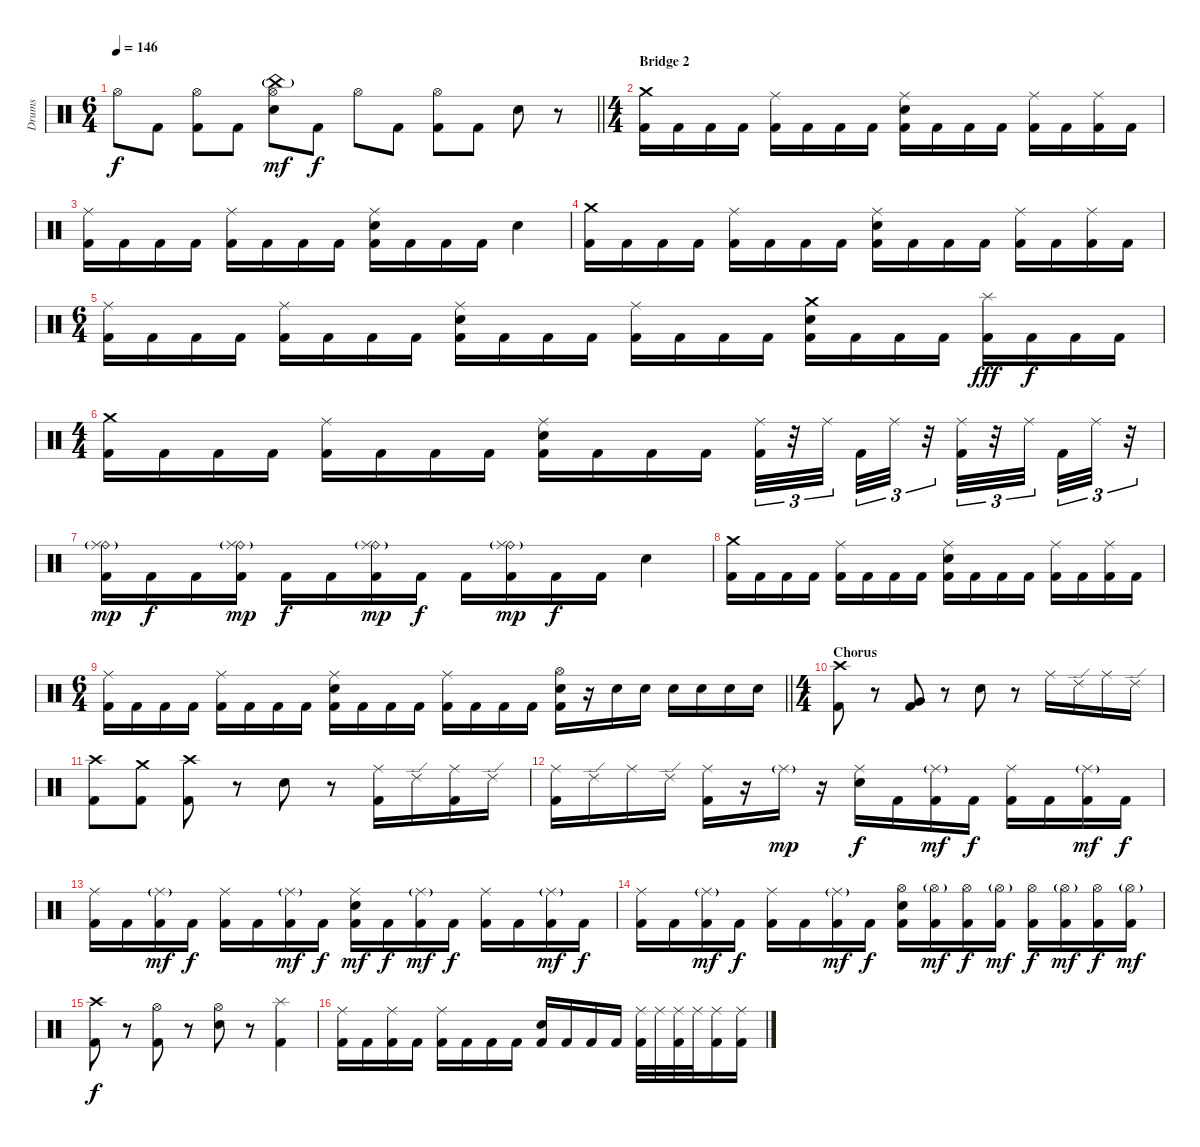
\track ("Drums" "Drums") {instrument percussion}
\staff {score}
\articulation defaults
\ts (6 4)
\tempo 146
\clef neutral
\barLineRight lightlight
\ks c "Hi-Hat (open)".8{dy f} "Kick (hit) 2".8
("Hi-Hat (open)" "Kick (hit) 2").8 "Kick (hit) 2".8 ("China (hit)"{g} "Hi-Hat (open)" "Electric Snare (hit)").8{dy mf} "Kick (hit) 2".8{dy f} "Hi-Hat (open)".8 "Kick (hit) 2".8 ("Hi-Hat (open)" "Kick (hit) 2").8 "Kick (hit) 2".8 "Electric Snare (hit)".8 r.8 |
\ts (4 4)
\section ("" "Bridge 2")
("Crash medium (hit)" "Kick (hit) 2").16 "Kick (hit) 2".16 "Kick (hit) 2".16 "Kick (hit) 2".16 ("Ride (middle)" "Kick (hit) 2").16 "Kick (hit) 2".16 "Kick (hit) 2".16 "Kick (hit) 2".16 ("Ride (middle)" "Electric Snare (hit)" "Kick (hit) 2").16 "Kick (hit) 2".16 "Kick (hit) 2".16 "Kick (hit) 2".16 ("Ride (middle)" "Kick (hit) 2").16 "Kick (hit) 2".16 ("Ride (middle)" "Kick (hit) 2").16 "Kick (hit) 2".16 |
("Ride (middle)" "Kick (hit) 2").16 "Kick (hit) 2".16 "Kick (hit) 2".16 "Kick (hit) 2".16 ("Ride (middle)" "Kick (hit) 2").16 "Kick (hit) 2".16 "Kick (hit) 2".16 "Kick (hit) 2".16 ("Ride (middle)" "Electric Snare (hit)" "Kick (hit) 2").16 "Kick (hit) 2".16 "Kick (hit) 2".16 "Kick (hit) 2".16 "Electric Snare (hit)".4 |
("Crash medium (hit)" "Kick (hit) 2").16 "Kick (hit) 2".16 "Kick (hit) 2".16 "Kick (hit) 2".16 ("Ride (middle)" "Kick (hit) 2").16 "Kick (hit) 2".16 "Kick (hit) 2".16 "Kick (hit) 2".16 ("Ride (middle)" "Electric Snare (hit)" "Kick (hit) 2").16 "Kick (hit) 2".16 "Kick (hit) 2".16 "Kick (hit) 2".16 ("Ride (middle)" "Kick (hit) 2").16 "Kick (hit) 2".16 ("Ride (middle)" "Kick (hit) 2").16 "Kick (hit) 2".16 |
\ts (6 4)
("Ride (middle)" "Kick (hit) 2").16 "Kick (hit) 2".16 "Kick (hit) 2".16 "Kick (hit) 2".16 ("Ride (middle)" "Kick (hit) 2").16 "Kick (hit) 2".16 "Kick (hit) 2".16 "Kick (hit) 2".16 ("Ride (middle)" "Electric Snare (hit)" "Kick (hit) 2").16 "Kick (hit) 2".16 "Kick (hit) 2".16 "Kick (hit) 2".16 ("Ride (middle)" "Kick (hit) 2").16 "Kick (hit) 2".16 "Kick (hit) 2".16 "Kick (hit) 2".16 ("Crash medium (hit)" "Electric Snare (hit)" "Kick (hit) 2").16 "Kick (hit) 2".16 "Kick (hit) 2".16 "Kick (hit) 2".16 ("Splash (hit)" "Kick (hit) 2").16{dy fff} "Kick (hit) 2".16{dy f} "Kick (hit) 2".16 "Kick (hit) 2".16 |
\ts (4 4)
("Crash medium (hit)" "Kick (hit) 2").16 "Kick (hit) 2".16 "Kick (hit) 2".16 "Kick (hit) 2".16 ("Ride (middle)" "Kick (hit) 2").16 "Kick (hit) 2".16 "Kick (hit) 2".16 "Kick (hit) 2".16 ("Ride (middle)" "Electric Snare (hit)" "Kick (hit) 2").16 "Kick (hit) 2".16 "Kick (hit) 2".16 "Kick (hit) 2".16 ("Ride (middle)" "Kick (hit) 2").32{tu (3 2)} r.32{tu (3 2)} "Ride (middle)".32{tu (3 2) beam splitsecondary} "Kick (hit) 2".32{tu (3 2)} "Ride (middle)".32{tu (3 2)} r.32{tu (3 2)} ("Ride (middle)" "Kick (hit) 2").32{tu (3 2)} r.32{tu (3 2)} "Ride (middle)".32{tu (3 2) beam splitsecondary} "Kick (hit) 2".32{tu (3 2)} "Ride (middle)".32{tu (3 2)} r.32{tu (3 2)} |
("Ride (bell)"{g} "Ride (middle)" "Kick (hit) 2").16{dy mp} "Kick (hit) 2".16{dy f} "Kick (hit) 2".16 ("Ride (bell)"{g} "Ride (middle)" "Kick (hit) 2").16{dy mp} "Kick (hit) 2".16{dy f} "Kick (hit) 2".16 ("Ride (bell)"{g} "Ride (middle)" "Kick (hit) 2").16{dy mp} "Kick (hit) 2".16{dy f} "Kick (hit) 2".16 ("Ride (bell)"{g} "Ride (middle)" "Kick (hit) 2").16{dy mp} "Kick (hit) 2".16{dy f} "Kick (hit) 2".16 "Electric Snare (hit)".4 |
("Crash medium (hit)" "Kick (hit) 2").16 "Kick (hit) 2".16 "Kick (hit) 2".16 "Kick (hit) 2".16 ("Ride (middle)" "Kick (hit) 2").16 "Kick (hit) 2".16 "Kick (hit) 2".16 "Kick (hit) 2".16 ("Ride (middle)" "Electric Snare (hit)" "Kick (hit) 2").16 "Kick (hit) 2".16 "Kick (hit) 2".16 "Kick (hit) 2".16 ("Ride (middle)" "Kick (hit) 2").16 "Kick (hit) 2".16 ("Ride (middle)" "Kick (hit) 2").16 "Kick (hit) 2".16 |
\ts (6 4)
\barLineRight lightlight
("Ride (middle)" "Kick (hit) 2").16 "Kick (hit) 2".16 "Kick (hit) 2".16 "Kick (hit) 2".16 ("Ride (middle)" "Kick (hit) 2").16 "Kick (hit) 2".16 "Kick (hit) 2".16 "Kick (hit) 2".16 ("Ride (middle)" "Electric Snare (hit)" "Kick (hit) 2").16 "Kick (hit) 2".16 "Kick (hit) 2".16 "Kick (hit) 2".16 ("Ride (middle)" "Kick (hit) 2").16 "Kick (hit) 2".16 "Kick (hit) 2".16 "Kick (hit) 2".16 ("Hi-Hat (open)" "Electric Snare (hit)" "Kick (hit) 2").16 r.16 "Electric Snare (hit)".16 "Electric Snare (hit)".16 "Electric Snare (hit)".16 "Electric Snare (hit)".16 "Electric Snare (hit)".16 "Electric Snare (hit)".16 |
\ts (4 4)
\section ("" "Chorus")
("Crash high (hit)" "Kick (hit) 2").8 r.8 ("Very Low Tom (hit)" "Kick (hit) 2").8 r.8 "Electric Snare (hit)".8 r.8 "Ride (middle)".16 "Ride (edge) 2".16 "Ride (middle)".16 "Ride (edge) 2".16 |
("Crash high (hit)" "Kick (hit) 2").8 ("Crash medium (hit)" "Kick (hit) 2").8 ("Crash high (hit)" "Kick (hit) 2").8 r.8 "Electric Snare (hit)".8 r.8 ("Ride (middle)" "Kick (hit) 2").16 "Ride (edge) 2".16 ("Ride (middle)" "Kick (hit) 2").16 "Ride (edge) 2".16 |
("Ride (middle)" "Kick (hit) 2").16 "Ride (edge) 2".16 "Ride (middle)".16 "Ride (edge) 2".16 ("Ride (middle)" "Kick (hit) 2").16 r.16 "Ride (middle)"{g}.16{dy mp} r.16 ("Ride (middle)" "Electric Snare (hit)").16{dy f} "Kick (hit) 2".16 ("Ride (middle)"{g} "Kick (hit) 2").16{dy mf} "Kick (hit) 2".16{dy f} ("Ride (middle)" "Kick (hit) 2").16 "Kick (hit) 2".16 ("Ride (middle)"{g} "Kick (hit) 2").16{dy mf} "Kick (hit) 2".16{dy f} |
("Ride (middle)" "Kick (hit) 2").16 "Kick (hit) 2".16 ("Ride (middle)"{g} "Kick (hit) 2").16{dy mf} "Kick (hit) 2".16{dy f} ("Ride (middle)" "Kick (hit) 2").16 "Kick (hit) 2".16 ("Ride (middle)"{g} "Kick (hit) 2").16{dy mf} "Kick (hit) 2".16{dy f} ("Ride (middle)" "Electric Snare (hit)" "Kick (hit) 2").16{dy mf} "Kick (hit) 2".16{dy f} ("Ride (middle)"{g} "Kick (hit) 2").16{dy mf} "Kick (hit) 2".16{dy f} ("Ride (middle)" "Kick (hit) 2").16 "Kick (hit) 2".16 ("Ride (middle)"{g} "Kick (hit) 2").16{dy mf} "Kick (hit) 2".16{dy f} |
("Ride (middle)" "Kick (hit) 2").16 "Kick (hit) 2".16 ("Ride (middle)"{g} "Kick (hit) 2").16{dy mf} "Kick (hit) 2".16{dy f} ("Ride (middle)" "Kick (hit) 2").16 "Kick (hit) 2".16 ("Ride (middle)"{g} "Kick (hit) 2").16{dy mf} "Kick (hit) 2".16{dy f} ("Hi-Hat (open)" "Electric Snare (hit)" "Kick (hit) 2").16 ("Hi-Hat (open)"{g} "Kick (hit) 2").16{dy mf} ("Hi-Hat (open)" "Kick (hit) 2").16{dy f} ("Hi-Hat (open)"{g} "Kick (hit) 2").16{dy mf} ("Hi-Hat (open)" "Kick (hit) 2").16{dy f} ("Hi-Hat (open)"{g} "Kick (hit) 2").16{dy mf} ("Hi-Hat (open)" "Kick (hit) 2").16{dy f} ("Hi-Hat (open)"{g} "Kick (hit) 2").16{dy mf} |
("Crash high (hit)" "Kick (hit) 2").8{dy f} r.8 ("Hi-Hat (open)" "Kick (hit) 2").8 r.8 ("Hi-Hat (open)" "Electric Snare (hit)").8 r.8 ("Splash (hit)" "Kick (hit) 2").4 |
("Ride (middle)" "Kick (hit) 2").16 "Kick (hit) 2".16 ("Ride (middle)" "Kick (hit) 2").16 "Kick (hit) 2".16 ("Ride (middle)" "Kick (hit) 2").16 "Kick (hit) 2".16 "Kick (hit) 2".16 "Kick (hit) 2".16 ("Electric Snare (hit)" "Kick (hit) 2").16 "Kick (hit) 2".16 "Kick (hit) 2".16 "Kick (hit) 2".16 ("Ride (middle)" "Kick (hit) 2").32 "Ride (middle)".32 ("Ride (middle)" "Kick (hit) 2").32 "Ride (middle)".32 ("Ride (middle)" "Kick (hit) 2").16 ("Ride (middle)" "Kick (hit) 2").16
